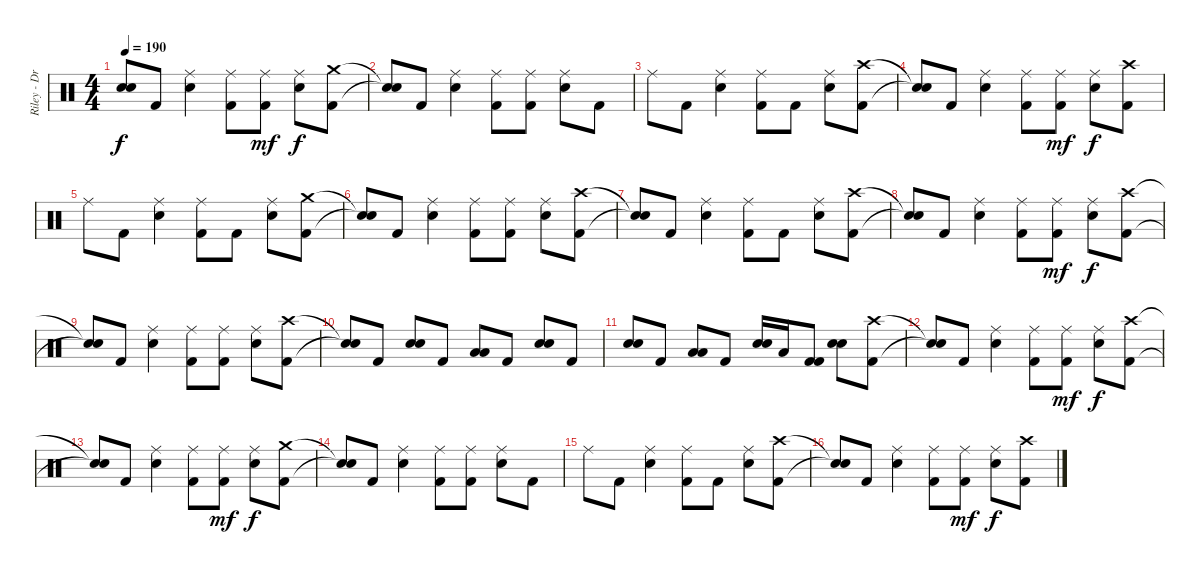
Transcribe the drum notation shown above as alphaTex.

\track ("Riley - Drums" "Riley - Dr") {instrument percussion}
\staff {score}
\articulation defaults
\ts (4 4)
\tempo 190
\clef neutral
\ks c
("Snare (hit)"{t} "Snare (hit)"{t}).8{dy f} "Kick (hit) 2".8 ("Electric Snare (hit)" "Ride (middle)").4 ("Kick (hit) 2" "Ride (middle)").8 ("Kick (hit) 2" "Ride (middle)").8{dy mf} ("Electric Snare (hit)" "Ride (middle)").8{dy f} ("Kick (hit) 2" "Crash medium (hit)").8 |
("Snare (hit)"{t} "Snare (hit)"{t}).8 "Kick (hit) 2".8 ("Electric Snare (hit)" "Ride (middle)").4 ("Kick (hit) 2" "Ride (middle)").8 ("Kick (hit) 2" "Ride (middle)").8 ("Electric Snare (hit)" "Ride (middle)").8 "Kick (hit) 2".8 |
"Ride (middle)".8 "Kick (hit) 2".8 ("Electric Snare (hit)" "Ride (middle)").4 ("Kick (hit) 2" "Ride (middle)").8 "Kick (hit) 2".8 ("Electric Snare (hit)" "Ride (middle)").8 ("Kick (hit) 2" "Crash high (hit)").8 |
("Snare (hit)"{t} "Snare (hit)"{t}).8 "Kick (hit) 2".8 ("Electric Snare (hit)" "Ride (middle)").4 ("Kick (hit) 2" "Ride (middle)").8 ("Kick (hit) 2" "Ride (middle)").8{dy mf} ("Electric Snare (hit)" "Ride (middle)").8{dy f} ("Kick (hit) 2" "Crash high (hit)").8 |
"Ride (middle)".8 "Kick (hit) 2".8 ("Electric Snare (hit)" "Ride (middle)").4 ("Kick (hit) 2" "Ride (middle)").8 "Kick (hit) 2".8 ("Electric Snare (hit)" "Ride (middle)").8 ("Kick (hit) 2" "Crash medium (hit)").8 |
("Snare (hit)"{t} "Snare (hit)"{t}).8 "Kick (hit) 2".8 ("Electric Snare (hit)" "Ride (middle)").4 ("Kick (hit) 2" "Ride (middle)").8 ("Kick (hit) 2" "Ride (middle)").8 ("Electric Snare (hit)" "Ride (middle)").8 ("Kick (hit) 2" "Crash high (hit)").8 |
("Snare (hit)"{t} "Snare (hit)"{t}).8 "Kick (hit) 2".8 ("Electric Snare (hit)" "Ride (middle)").4 ("Kick (hit) 2" "Ride (middle)").8 "Kick (hit) 2".8 ("Electric Snare (hit)" "Ride (middle)").8 ("Kick (hit) 2" "Crash high (hit)").8 |
("Snare (hit)"{t} "Snare (hit)"{t}).8 "Kick (hit) 2".8 ("Electric Snare (hit)" "Ride (middle)").4 ("Kick (hit) 2" "Ride (middle)").8 ("Kick (hit) 2" "Ride (middle)").8{dy mf} ("Electric Snare (hit)" "Ride (middle)").8{dy f} ("Kick (hit) 2" "Crash high (hit)").8 |
("Snare (hit)"{t} "Snare (hit)"{t}).8 "Kick (hit) 2".8 ("Electric Snare (hit)" "Ride (middle)").4 ("Kick (hit) 2" "Ride (middle)").8 ("Kick (hit) 2" "Ride (middle)").8 ("Electric Snare (hit)" "Ride (middle)").8 ("Kick (hit) 2" "Crash high (hit)").8 |
("Snare (hit)"{t} "Snare (hit)"{t}).8 "Kick (hit) 2".8 ("Electric Snare (hit)" "Electric Snare (hit)").8 "Kick (hit) 2".8 ("Low Tom (hit)" "Low Tom (hit)").8 "Kick (hit) 2".8 ("Electric Snare (hit)" "Electric Snare (hit)").8 "Kick (hit) 2".8 |
("Electric Snare (hit)" "Electric Snare (hit)").8 "Kick (hit) 2".8 ("Low Tom (hit)" "Low Tom (hit)").8 "Kick (hit) 2".8 ("Electric Snare (hit)" "Electric Snare (hit)").16 "Low Tom (hit)".16 ("Kick (hit) 2" "Kick (hit) 2").8 ("Electric Snare (hit)" "Electric Snare (hit)").8 ("Kick (hit) 2" "Crash high (hit)").8 |
("Snare (hit)"{t} "Snare (hit)"{t}).8 "Kick (hit) 2".8 ("Electric Snare (hit)" "Ride (middle)").4 ("Kick (hit) 2" "Ride (middle)").8 ("Kick (hit) 2" "Ride (middle)").8{dy mf} ("Electric Snare (hit)" "Ride (middle)").8{dy f} ("Kick (hit) 2" "Crash high (hit)").8 |
("Snare (hit)"{t} "Snare (hit)"{t}).8 "Kick (hit) 2".8 ("Electric Snare (hit)" "Ride (middle)").4 ("Kick (hit) 2" "Ride (middle)").8 ("Kick (hit) 2" "Ride (middle)").8{dy mf} ("Electric Snare (hit)" "Ride (middle)").8{dy f} ("Kick (hit) 2" "Crash medium (hit)").8 |
("Snare (hit)"{t} "Snare (hit)"{t}).8 "Kick (hit) 2".8 ("Electric Snare (hit)" "Ride (middle)").4 ("Kick (hit) 2" "Ride (middle)").8 ("Kick (hit) 2" "Ride (middle)").8 ("Electric Snare (hit)" "Ride (middle)").8 "Kick (hit) 2".8 |
"Ride (middle)".8 "Kick (hit) 2".8 ("Electric Snare (hit)" "Ride (middle)").4 ("Kick (hit) 2" "Ride (middle)").8 "Kick (hit) 2".8 ("Electric Snare (hit)" "Ride (middle)").8 ("Kick (hit) 2" "Crash high (hit)").8 |
("Snare (hit)"{t} "Snare (hit)"{t}).8 "Kick (hit) 2".8 ("Electric Snare (hit)" "Ride (middle)").4 ("Kick (hit) 2" "Ride (middle)").8 ("Kick (hit) 2" "Ride (middle)").8{dy mf} ("Electric Snare (hit)" "Ride (middle)").8{dy f} ("Kick (hit) 2" "Crash high (hit)").8
